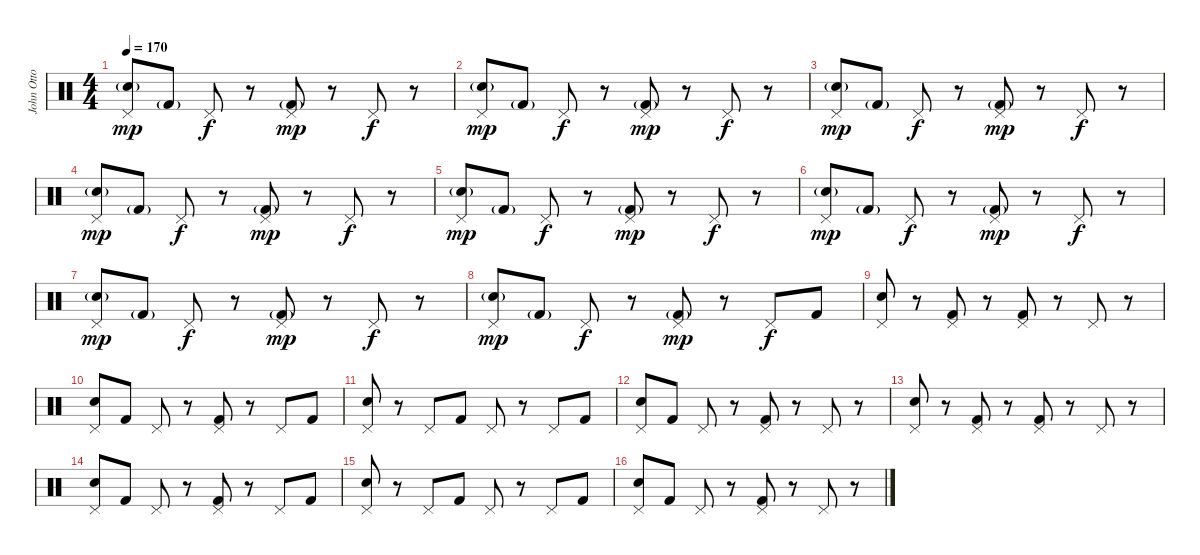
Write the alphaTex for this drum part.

\track ("John Otto" "John Otto") {instrument percussion}
\staff {score}
\articulation defaults
\ts (4 4)
\tempo 170
\clef neutral
\ks c
("Pedal Hi-Hat (hit)" "Snare (hit) 2"{g}).8{dy mp} "Kick (hit) 2"{g}.8 "Pedal Hi-Hat (hit)".8{dy f} r.8 ("Pedal Hi-Hat (hit)" "Kick (hit) 2"{g}).8{dy mp} r.8 "Pedal Hi-Hat (hit)".8{dy f} r.8 |
("Pedal Hi-Hat (hit)" "Snare (hit) 2"{g}).8{dy mp} "Kick (hit) 2"{g}.8 "Pedal Hi-Hat (hit)".8{dy f} r.8 ("Pedal Hi-Hat (hit)" "Kick (hit) 2"{g}).8{dy mp} r.8 "Pedal Hi-Hat (hit)".8{dy f} r.8 |
("Pedal Hi-Hat (hit)" "Snare (hit) 2"{g}).8{dy mp} "Kick (hit) 2"{g}.8 "Pedal Hi-Hat (hit)".8{dy f} r.8 ("Pedal Hi-Hat (hit)" "Kick (hit) 2"{g}).8{dy mp} r.8 "Pedal Hi-Hat (hit)".8{dy f} r.8 |
("Pedal Hi-Hat (hit)" "Snare (hit) 2"{g}).8{dy mp} "Kick (hit) 2"{g}.8 "Pedal Hi-Hat (hit)".8{dy f} r.8 ("Pedal Hi-Hat (hit)" "Kick (hit) 2"{g}).8{dy mp} r.8 "Pedal Hi-Hat (hit)".8{dy f} r.8 |
("Pedal Hi-Hat (hit)" "Snare (hit) 2"{g}).8{dy mp} "Kick (hit) 2"{g}.8 "Pedal Hi-Hat (hit)".8{dy f} r.8 ("Pedal Hi-Hat (hit)" "Kick (hit) 2"{g}).8{dy mp} r.8 "Pedal Hi-Hat (hit)".8{dy f} r.8 |
("Pedal Hi-Hat (hit)" "Snare (hit) 2"{g}).8{dy mp} "Kick (hit) 2"{g}.8 "Pedal Hi-Hat (hit)".8{dy f} r.8 ("Pedal Hi-Hat (hit)" "Kick (hit) 2"{g}).8{dy mp} r.8 "Pedal Hi-Hat (hit)".8{dy f} r.8 |
("Pedal Hi-Hat (hit)" "Snare (hit) 2"{g}).8{dy mp} "Kick (hit) 2"{g}.8 "Pedal Hi-Hat (hit)".8{dy f} r.8 ("Pedal Hi-Hat (hit)" "Kick (hit) 2"{g}).8{dy mp} r.8 "Pedal Hi-Hat (hit)".8{dy f} r.8 |
("Pedal Hi-Hat (hit)" "Snare (hit) 2"{g}).8{dy mp} "Kick (hit) 2"{g}.8 "Pedal Hi-Hat (hit)".8{dy f} r.8 ("Pedal Hi-Hat (hit)" "Kick (hit) 2"{g}).8{dy mp} r.8 "Pedal Hi-Hat (hit)".8{dy f} "Kick (hit) 2".8 |
("Pedal Hi-Hat (hit)" "Snare (hit) 2").8 r.8 ("Pedal Hi-Hat (hit)" "Kick (hit) 2").8 r.8 ("Pedal Hi-Hat (hit)" "Kick (hit) 2").8 r.8 "Pedal Hi-Hat (hit)".8 r.8 |
("Pedal Hi-Hat (hit)" "Snare (hit) 2").8 "Kick (hit) 2".8 "Pedal Hi-Hat (hit)".8 r.8 ("Pedal Hi-Hat (hit)" "Kick (hit) 2").8 r.8 "Pedal Hi-Hat (hit)".8 "Kick (hit) 2".8 |
("Pedal Hi-Hat (hit)" "Snare (hit) 2").8 r.8 "Pedal Hi-Hat (hit)".8 "Kick (hit) 2".8 "Pedal Hi-Hat (hit)".8 r.8 "Pedal Hi-Hat (hit)".8 "Kick (hit) 2".8 |
("Pedal Hi-Hat (hit)" "Snare (hit) 2").8 "Kick (hit) 2".8 "Pedal Hi-Hat (hit)".8 r.8 ("Pedal Hi-Hat (hit)" "Kick (hit) 2").8 r.8 "Pedal Hi-Hat (hit)".8 r.8 |
("Pedal Hi-Hat (hit)" "Snare (hit) 2").8 r.8 ("Pedal Hi-Hat (hit)" "Kick (hit) 2").8 r.8 ("Pedal Hi-Hat (hit)" "Kick (hit) 2").8 r.8 "Pedal Hi-Hat (hit)".8 r.8 |
("Pedal Hi-Hat (hit)" "Snare (hit) 2").8 "Kick (hit) 2".8 "Pedal Hi-Hat (hit)".8 r.8 ("Pedal Hi-Hat (hit)" "Kick (hit) 2").8 r.8 "Pedal Hi-Hat (hit)".8 "Kick (hit) 2".8 |
("Pedal Hi-Hat (hit)" "Snare (hit) 2").8 r.8 "Pedal Hi-Hat (hit)".8 "Kick (hit) 2".8 "Pedal Hi-Hat (hit)".8 r.8 "Pedal Hi-Hat (hit)".8 "Kick (hit) 2".8 |
("Pedal Hi-Hat (hit)" "Snare (hit) 2").8 "Kick (hit) 2".8 "Pedal Hi-Hat (hit)".8 r.8 ("Pedal Hi-Hat (hit)" "Kick (hit) 2").8 r.8 "Pedal Hi-Hat (hit)".8 r.8
